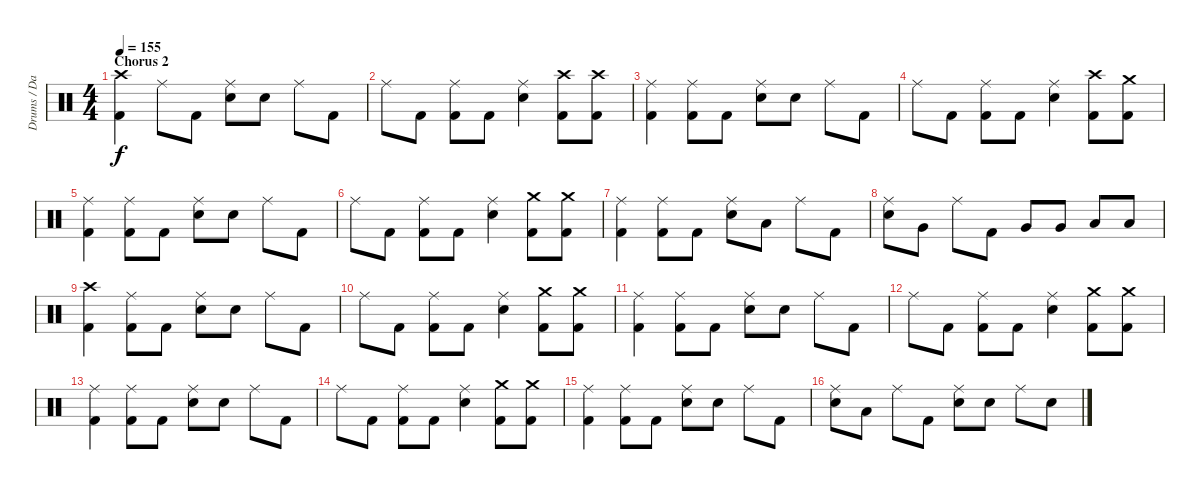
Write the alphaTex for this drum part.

\track ("Drums / David" "Drums / Da") {instrument percussion}
\staff {score}
\articulation defaults
\ts (4 4)
\section ("" "Chorus 2")
\tempo 155
\clef neutral
\ks c
("Crash high (hit)" "Kick (hit) 2").4{dy f} "Ride (middle)".8 "Kick (hit) 2".8 ("Ride (middle)" "Electric Snare (hit)").8 "Electric Snare (hit)".8 "Ride (middle)".8 "Kick (hit) 2".8 |
"Ride (middle)".8 "Kick (hit) 2".8 ("Ride (middle)" "Kick (hit) 2").8 "Kick (hit) 2".8 ("Ride (middle)" "Electric Snare (hit)").4 ("Crash high (hit)" "Kick (hit) 2").8 ("Crash high (hit)" "Kick (hit) 2").8 |
("Ride (middle)" "Kick (hit) 2").4 ("Ride (middle)" "Kick (hit) 2").8 "Kick (hit) 2".8 ("Ride (middle)" "Electric Snare (hit)").8 "Electric Snare (hit)".8 "Ride (middle)".8 "Kick (hit) 2".8 |
"Ride (middle)".8 "Kick (hit) 2".8 ("Ride (middle)" "Kick (hit) 2").8 "Kick (hit) 2".8 ("Ride (middle)" "Electric Snare (hit)").4 ("Crash high (hit)" "Kick (hit) 2").8 ("Crash medium (hit)" "Kick (hit) 2").8 |
("Ride (middle)" "Kick (hit) 2").4 ("Ride (middle)" "Kick (hit) 2").8 "Kick (hit) 2".8 ("Ride (middle)" "Electric Snare (hit)").8 "Electric Snare (hit)".8 "Ride (middle)".8 "Kick (hit) 2".8 |
"Ride (middle)".8 "Kick (hit) 2".8 ("Ride (middle)" "Kick (hit) 2").8 "Kick (hit) 2".8 ("Ride (middle)" "Electric Snare (hit)").4 ("Crash medium (hit)" "Kick (hit) 2").8 ("Crash medium (hit)" "Kick (hit) 2").8 |
("Ride (middle)" "Kick (hit) 2").4 ("Ride (middle)" "Kick (hit) 2").8 "Kick (hit) 2".8 ("Ride (middle)" "Electric Snare (hit)").8 "Low Tom (hit)".8 "Ride (middle)".8 "Kick (hit) 2".8 |
("Ride (middle)" "Electric Snare (hit)").8 "Very Low Tom (hit)".8 "Ride (middle)".8 "Kick (hit) 2".8 "Very Low Tom (hit)".8 "Very Low Tom (hit)".8 "Low Floor Tom (hit)".8 "Low Floor Tom (hit)".8 |
("Crash high (hit)" "Kick (hit) 2").4 ("Ride (middle)" "Kick (hit) 2").8 "Kick (hit) 2".8 ("Ride (middle)" "Electric Snare (hit)").8 "Electric Snare (hit)".8 "Ride (middle)".8 "Kick (hit) 2".8 |
"Ride (middle)".8 "Kick (hit) 2".8 ("Ride (middle)" "Kick (hit) 2").8 "Kick (hit) 2".8 ("Ride (middle)" "Electric Snare (hit)").4 ("Crash medium (hit)" "Kick (hit) 2").8 ("Crash medium (hit)" "Kick (hit) 2").8 |
("Ride (middle)" "Kick (hit) 2").4 ("Ride (middle)" "Kick (hit) 2").8 "Kick (hit) 2".8 ("Ride (middle)" "Electric Snare (hit)").8 "Electric Snare (hit)".8 "Ride (middle)".8 "Kick (hit) 2".8 |
"Ride (middle)".8 "Kick (hit) 2".8 ("Ride (middle)" "Kick (hit) 2").8 "Kick (hit) 2".8 ("Ride (middle)" "Electric Snare (hit)").4 ("Crash medium (hit)" "Kick (hit) 2").8 ("Crash medium (hit)" "Kick (hit) 2").8 |
("Ride (middle)" "Kick (hit) 2").4 ("Ride (middle)" "Kick (hit) 2").8 "Kick (hit) 2".8 ("Ride (middle)" "Electric Snare (hit)").8 "Electric Snare (hit)".8 "Ride (middle)".8 "Kick (hit) 2".8 |
"Ride (middle)".8 "Kick (hit) 2".8 ("Ride (middle)" "Kick (hit) 2").8 "Kick (hit) 2".8 ("Ride (middle)" "Electric Snare (hit)").4 ("Crash medium (hit)" "Kick (hit) 2").8 ("Crash medium (hit)" "Kick (hit) 2").8 |
("Ride (middle)" "Kick (hit) 2").4 ("Ride (middle)" "Kick (hit) 2").8 "Kick (hit) 2".8 ("Ride (middle)" "Electric Snare (hit)").8 "Electric Snare (hit)".8 "Ride (middle)".8 "Kick (hit) 2".8 |
("Ride (middle)" "Electric Snare (hit)").8 "Low Tom (hit)".8 "Ride (middle)".8 "Kick (hit) 2".8 ("Ride (middle)" "Electric Snare (hit)").8 "Electric Snare (hit)".8 "Ride (middle)".8 "Electric Snare (hit)".8
